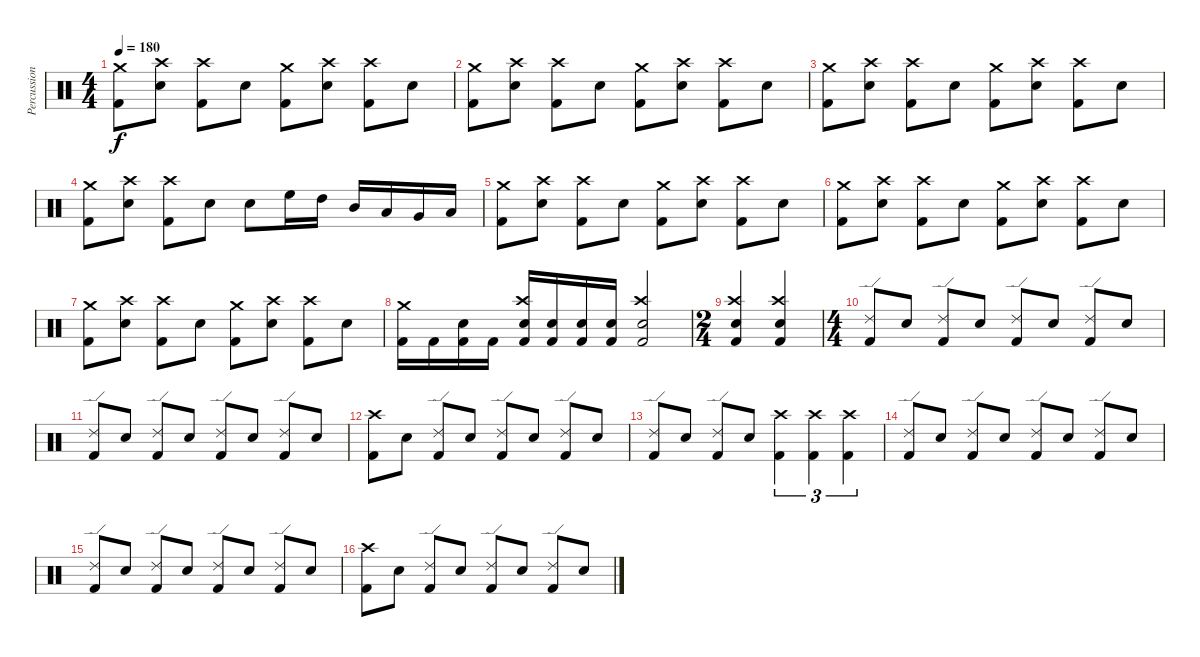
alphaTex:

\track ("Percussion" "Percussion") {instrument percussion}
\staff {score}
\articulation defaults
\ts (4 4)
\tempo 180
\clef neutral
\ks c
("Crash medium (hit)" "Kick (hit) 2").8{dy f} ("Crash high (hit)" "Electric Snare (hit)").8 ("Crash high (hit)" "Kick (hit) 2").8 "Electric Snare (hit)".8 ("Crash medium (hit)" "Kick (hit) 2").8 ("Crash high (hit)" "Electric Snare (hit)").8 ("Crash high (hit)" "Kick (hit) 2").8 "Electric Snare (hit)".8 |
("Crash medium (hit)" "Kick (hit) 2").8 ("Crash high (hit)" "Electric Snare (hit)").8 ("Crash high (hit)" "Kick (hit) 2").8 "Electric Snare (hit)".8 ("Crash medium (hit)" "Kick (hit) 2").8 ("Crash high (hit)" "Electric Snare (hit)").8 ("Crash high (hit)" "Kick (hit) 2").8 "Electric Snare (hit)".8 |
("Crash medium (hit)" "Kick (hit) 2").8 ("Crash high (hit)" "Electric Snare (hit)").8 ("Crash high (hit)" "Kick (hit) 2").8 "Electric Snare (hit)".8 ("Crash medium (hit)" "Kick (hit) 2").8 ("Crash high (hit)" "Electric Snare (hit)").8 ("Crash high (hit)" "Kick (hit) 2").8 "Electric Snare (hit)".8 |
("Crash medium (hit)" "Kick (hit) 2").8 ("Crash high (hit)" "Electric Snare (hit)").8 ("Crash high (hit)" "Kick (hit) 2").8 "Electric Snare (hit)".8 "Electric Snare (hit)".8 "High Floor Tom (hit)".16 "High Tom (hit)".16 "Mid Tom (hit)".16 "Low Tom (hit)".16 "Very Low Tom (hit)".16 "Low Floor Tom (hit)".16 |
("Crash medium (hit)" "Kick (hit) 2").8 ("Crash high (hit)" "Electric Snare (hit)").8 ("Crash high (hit)" "Kick (hit) 2").8 "Electric Snare (hit)".8 ("Crash medium (hit)" "Kick (hit) 2").8 ("Crash high (hit)" "Electric Snare (hit)").8 ("Crash high (hit)" "Kick (hit) 2").8 "Electric Snare (hit)".8 |
("Crash medium (hit)" "Kick (hit) 2").8 ("Crash high (hit)" "Electric Snare (hit)").8 ("Crash high (hit)" "Kick (hit) 2").8 "Electric Snare (hit)".8 ("Crash medium (hit)" "Kick (hit) 2").8 ("Crash high (hit)" "Electric Snare (hit)").8 ("Crash high (hit)" "Kick (hit) 2").8 "Electric Snare (hit)".8 |
("Crash medium (hit)" "Kick (hit) 2").8 ("Crash high (hit)" "Electric Snare (hit)").8 ("Crash high (hit)" "Kick (hit) 2").8 "Electric Snare (hit)".8 ("Crash medium (hit)" "Kick (hit) 2").8 ("Crash high (hit)" "Electric Snare (hit)").8 ("Crash high (hit)" "Kick (hit) 2").8 "Electric Snare (hit)".8 |
("Crash medium (hit)" "Kick (hit) 2").16 "Kick (hit) 2".16 ("Electric Snare (hit)" "Kick (hit) 2").16 "Kick (hit) 2".16 ("Crash high (hit)" "Electric Snare (hit)" "Kick (hit) 2").16 ("Electric Snare (hit)" "Kick (hit) 2").16 ("Electric Snare (hit)" "Kick (hit) 2").16 ("Electric Snare (hit)" "Kick (hit) 2").16 ("Crash high (hit)" "Electric Snare (hit)" "Kick (hit) 2").2 |
\ts (2 4)
("Crash high (hit)" "Electric Snare (hit)" "Kick (hit) 2").4 ("Crash high (hit)" "Electric Snare (hit)" "Kick (hit) 2").4 |
\ts (4 4)
("Ride (edge) 2" "Kick (hit) 2").8 "Electric Snare (hit)".8 ("Ride (edge) 2" "Kick (hit) 2").8 "Electric Snare (hit)".8 ("Ride (edge) 2" "Kick (hit) 2").8 "Electric Snare (hit)".8 ("Ride (edge) 2" "Kick (hit) 2").8 "Electric Snare (hit)".8 |
("Ride (edge) 2" "Kick (hit) 2").8 "Electric Snare (hit)".8 ("Ride (edge) 2" "Kick (hit) 2").8 "Electric Snare (hit)".8 ("Ride (edge) 2" "Kick (hit) 2").8 "Electric Snare (hit)".8 ("Ride (edge) 2" "Kick (hit) 2").8 "Electric Snare (hit)".8 |
("Crash high (hit)" "Kick (hit) 2").8 "Electric Snare (hit)".8 ("Ride (edge) 2" "Kick (hit) 2").8 "Electric Snare (hit)".8 ("Ride (edge) 2" "Kick (hit) 2").8 "Electric Snare (hit)".8 ("Ride (edge) 2" "Kick (hit) 2").8 "Electric Snare (hit)".8 |
("Ride (edge) 2" "Kick (hit) 2").8 "Electric Snare (hit)".8 ("Ride (edge) 2" "Kick (hit) 2").8 "Electric Snare (hit)".8 ("Crash high (hit)" "Kick (hit) 2").4{tu (3 2)} ("Crash high (hit)" "Kick (hit) 2").4{tu (3 2)} ("Crash high (hit)" "Kick (hit) 2").4{tu (3 2)} |
("Ride (edge) 2" "Kick (hit) 2").8 "Electric Snare (hit)".8 ("Ride (edge) 2" "Kick (hit) 2").8 "Electric Snare (hit)".8 ("Ride (edge) 2" "Kick (hit) 2").8 "Electric Snare (hit)".8 ("Ride (edge) 2" "Kick (hit) 2").8 "Electric Snare (hit)".8 |
("Ride (edge) 2" "Kick (hit) 2").8 "Electric Snare (hit)".8 ("Ride (edge) 2" "Kick (hit) 2").8 "Electric Snare (hit)".8 ("Ride (edge) 2" "Kick (hit) 2").8 "Electric Snare (hit)".8 ("Ride (edge) 2" "Kick (hit) 2").8 "Electric Snare (hit)".8 |
("Crash high (hit)" "Kick (hit) 2").8 "Electric Snare (hit)".8 ("Ride (edge) 2" "Kick (hit) 2").8 "Electric Snare (hit)".8 ("Ride (edge) 2" "Kick (hit) 2").8 "Electric Snare (hit)".8 ("Ride (edge) 2" "Kick (hit) 2").8 "Electric Snare (hit)".8
